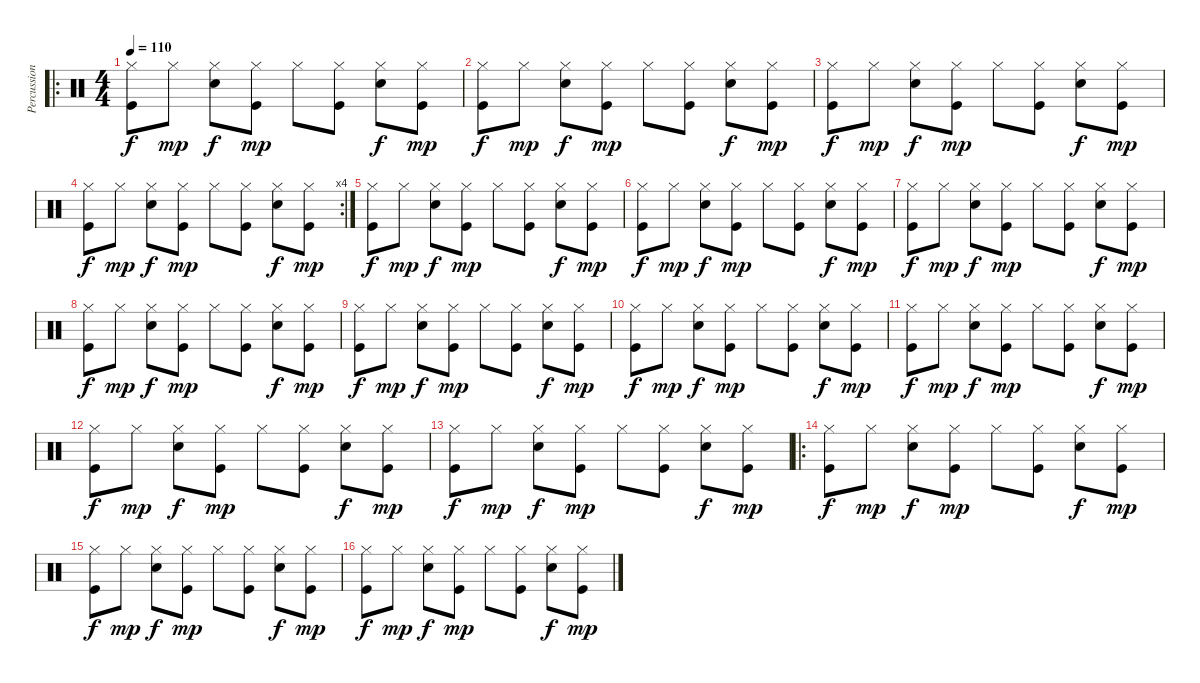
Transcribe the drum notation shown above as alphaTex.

\track ("Percussion" "Percussion") {instrument percussion}
\staff {score}
\articulation defaults
\ro
\ts (4 4)
\tempo 110
\clef neutral
\ks c
("Hi-Hat (closed)" "Kick (hit)").8{dy f} "Hi-Hat (closed)".8{dy mp} ("Hi-Hat (closed)" "Snare (hit) 2").8{dy f} ("Hi-Hat (closed)" "Kick (hit)").8{dy mp} "Hi-Hat (closed)".8 ("Hi-Hat (closed)" "Kick (hit)").8 ("Hi-Hat (closed)" "Snare (hit) 2").8{dy f} ("Hi-Hat (closed)" "Kick (hit)").8{dy mp} |
("Hi-Hat (closed)" "Kick (hit)").8{dy f} "Hi-Hat (closed)".8{dy mp} ("Hi-Hat (closed)" "Snare (hit) 2").8{dy f} ("Hi-Hat (closed)" "Kick (hit)").8{dy mp} "Hi-Hat (closed)".8 ("Hi-Hat (closed)" "Kick (hit)").8 ("Hi-Hat (closed)" "Snare (hit) 2").8{dy f} ("Hi-Hat (closed)" "Kick (hit)").8{dy mp} |
("Hi-Hat (closed)" "Kick (hit)").8{dy f} "Hi-Hat (closed)".8{dy mp} ("Hi-Hat (closed)" "Snare (hit) 2").8{dy f} ("Hi-Hat (closed)" "Kick (hit)").8{dy mp} "Hi-Hat (closed)".8 ("Hi-Hat (closed)" "Kick (hit)").8 ("Hi-Hat (closed)" "Snare (hit) 2").8{dy f} ("Hi-Hat (closed)" "Kick (hit)").8{dy mp} |
\rc 4
("Hi-Hat (closed)" "Kick (hit)").8{dy f} "Hi-Hat (closed)".8{dy mp} ("Hi-Hat (closed)" "Snare (hit) 2").8{dy f} ("Hi-Hat (closed)" "Kick (hit)").8{dy mp} "Hi-Hat (closed)".8 ("Hi-Hat (closed)" "Kick (hit)").8 ("Hi-Hat (closed)" "Snare (hit) 2").8{dy f} ("Hi-Hat (closed)" "Kick (hit)").8{dy mp} |
("Hi-Hat (closed)" "Kick (hit)").8{dy f} "Hi-Hat (closed)".8{dy mp} ("Hi-Hat (closed)" "Snare (hit) 2").8{dy f} ("Hi-Hat (closed)" "Kick (hit)").8{dy mp} "Hi-Hat (closed)".8 ("Hi-Hat (closed)" "Kick (hit)").8 ("Hi-Hat (closed)" "Snare (hit) 2").8{dy f} ("Hi-Hat (closed)" "Kick (hit)").8{dy mp} |
("Hi-Hat (closed)" "Kick (hit)").8{dy f} "Hi-Hat (closed)".8{dy mp} ("Hi-Hat (closed)" "Snare (hit) 2").8{dy f} ("Hi-Hat (closed)" "Kick (hit)").8{dy mp} "Hi-Hat (closed)".8 ("Hi-Hat (closed)" "Kick (hit)").8 ("Hi-Hat (closed)" "Snare (hit) 2").8{dy f} ("Hi-Hat (closed)" "Kick (hit)").8{dy mp} |
("Hi-Hat (closed)" "Kick (hit)").8{dy f} "Hi-Hat (closed)".8{dy mp} ("Hi-Hat (closed)" "Snare (hit) 2").8{dy f} ("Hi-Hat (closed)" "Kick (hit)").8{dy mp} "Hi-Hat (closed)".8 ("Hi-Hat (closed)" "Kick (hit)").8 ("Hi-Hat (closed)" "Snare (hit) 2").8{dy f} ("Hi-Hat (closed)" "Kick (hit)").8{dy mp} |
("Hi-Hat (closed)" "Kick (hit)").8{dy f} "Hi-Hat (closed)".8{dy mp} ("Hi-Hat (closed)" "Snare (hit) 2").8{dy f} ("Hi-Hat (closed)" "Kick (hit)").8{dy mp} "Hi-Hat (closed)".8 ("Hi-Hat (closed)" "Kick (hit)").8 ("Hi-Hat (closed)" "Snare (hit) 2").8{dy f} ("Hi-Hat (closed)" "Kick (hit)").8{dy mp} |
("Hi-Hat (closed)" "Kick (hit)").8{dy f} "Hi-Hat (closed)".8{dy mp} ("Hi-Hat (closed)" "Snare (hit) 2").8{dy f} ("Hi-Hat (closed)" "Kick (hit)").8{dy mp} "Hi-Hat (closed)".8 ("Hi-Hat (closed)" "Kick (hit)").8 ("Hi-Hat (closed)" "Snare (hit) 2").8{dy f} ("Hi-Hat (closed)" "Kick (hit)").8{dy mp} |
("Hi-Hat (closed)" "Kick (hit)").8{dy f} "Hi-Hat (closed)".8{dy mp} ("Hi-Hat (closed)" "Snare (hit) 2").8{dy f} ("Hi-Hat (closed)" "Kick (hit)").8{dy mp} "Hi-Hat (closed)".8 ("Hi-Hat (closed)" "Kick (hit)").8 ("Hi-Hat (closed)" "Snare (hit) 2").8{dy f} ("Hi-Hat (closed)" "Kick (hit)").8{dy mp} |
("Hi-Hat (closed)" "Kick (hit)").8{dy f} "Hi-Hat (closed)".8{dy mp} ("Hi-Hat (closed)" "Snare (hit) 2").8{dy f} ("Hi-Hat (closed)" "Kick (hit)").8{dy mp} "Hi-Hat (closed)".8 ("Hi-Hat (closed)" "Kick (hit)").8 ("Hi-Hat (closed)" "Snare (hit) 2").8{dy f} ("Hi-Hat (closed)" "Kick (hit)").8{dy mp} |
("Hi-Hat (closed)" "Kick (hit)").8{dy f} "Hi-Hat (closed)".8{dy mp} ("Hi-Hat (closed)" "Snare (hit) 2").8{dy f} ("Hi-Hat (closed)" "Kick (hit)").8{dy mp} "Hi-Hat (closed)".8 ("Hi-Hat (closed)" "Kick (hit)").8 ("Hi-Hat (closed)" "Snare (hit) 2").8{dy f} ("Hi-Hat (closed)" "Kick (hit)").8{dy mp} |
("Hi-Hat (closed)" "Kick (hit)").8{dy f} "Hi-Hat (closed)".8{dy mp} ("Hi-Hat (closed)" "Snare (hit) 2").8{dy f} ("Hi-Hat (closed)" "Kick (hit)").8{dy mp} "Hi-Hat (closed)".8 ("Hi-Hat (closed)" "Kick (hit)").8 ("Hi-Hat (closed)" "Snare (hit) 2").8{dy f} ("Hi-Hat (closed)" "Kick (hit)").8{dy mp} |
\ro
("Hi-Hat (closed)" "Kick (hit)").8{dy f} "Hi-Hat (closed)".8{dy mp} ("Hi-Hat (closed)" "Snare (hit) 2").8{dy f} ("Hi-Hat (closed)" "Kick (hit)").8{dy mp} "Hi-Hat (closed)".8 ("Hi-Hat (closed)" "Kick (hit)").8 ("Hi-Hat (closed)" "Snare (hit) 2").8{dy f} ("Hi-Hat (closed)" "Kick (hit)").8{dy mp} |
("Hi-Hat (closed)" "Kick (hit)").8{dy f} "Hi-Hat (closed)".8{dy mp} ("Hi-Hat (closed)" "Snare (hit) 2").8{dy f} ("Hi-Hat (closed)" "Kick (hit)").8{dy mp} "Hi-Hat (closed)".8 ("Hi-Hat (closed)" "Kick (hit)").8 ("Hi-Hat (closed)" "Snare (hit) 2").8{dy f} ("Hi-Hat (closed)" "Kick (hit)").8{dy mp} |
("Hi-Hat (closed)" "Kick (hit)").8{dy f} "Hi-Hat (closed)".8{dy mp} ("Hi-Hat (closed)" "Snare (hit) 2").8{dy f} ("Hi-Hat (closed)" "Kick (hit)").8{dy mp} "Hi-Hat (closed)".8 ("Hi-Hat (closed)" "Kick (hit)").8 ("Hi-Hat (closed)" "Snare (hit) 2").8{dy f} ("Hi-Hat (closed)" "Kick (hit)").8{dy mp}
